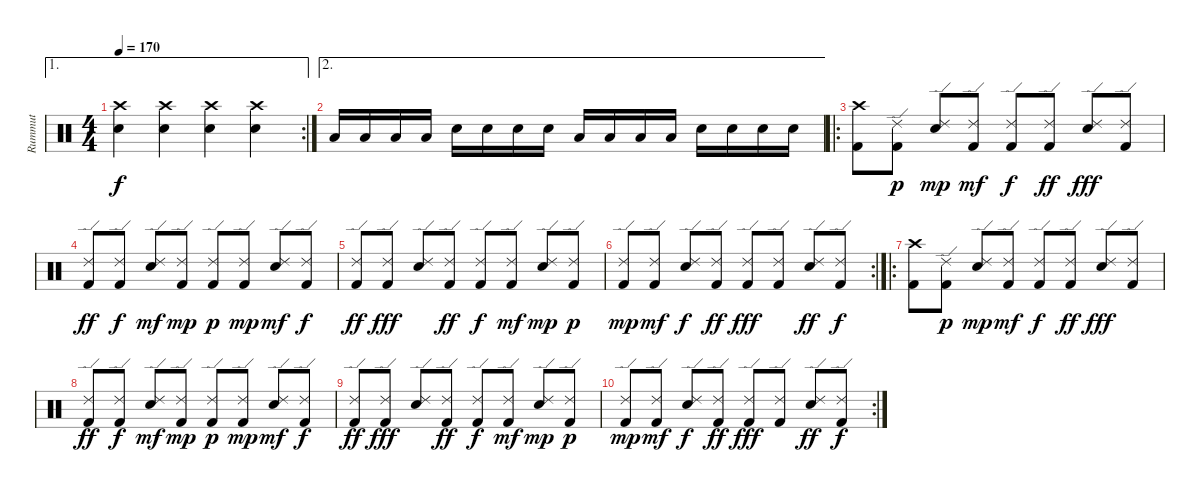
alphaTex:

\track ("Rummut" "Rummut") {instrument percussion}
\staff {score}
\articulation defaults
\ae 1
\rc 2
\ts (4 4)
\tempo 170
\clef neutral
\ks c
("Crash high (hit)" "Electric Snare (hit)").4{dy f} ("Crash high (hit)" "Electric Snare (hit)").4 ("Crash high (hit)" "Electric Snare (hit)").4 ("Crash high (hit)" "Electric Snare (hit)").4 |
\ae 2 "Low Tom (hit)".16 "Low Tom (hit)".16 "Low Tom (hit)".16 "Low Tom (hit)".16 "Electric Snare (hit)".16 "Electric Snare (hit)".16 "Electric Snare (hit)".16 "Electric Snare (hit)".16 "Low Tom (hit)".16 "Low Tom (hit)".16 "Low Tom (hit)".16 "Low Tom (hit)".16 "Electric Snare (hit)".16 "Electric Snare (hit)".16 "Electric Snare (hit)".16 "Electric Snare (hit)".16
|
\ro
("Crash high (hit)" "Kick (hit) 2").8 ("Ride (edge) 2" "Kick (hit) 2").8{dy p} ("Ride (edge) 2" "Electric Snare (hit)").8{dy mp} ("Ride (edge) 2" "Kick (hit) 2").8{dy mf} ("Ride (edge) 2" "Kick (hit) 2").8{dy f} ("Ride (edge) 2" "Kick (hit) 2").8{dy ff} ("Ride (edge) 2" "Electric Snare (hit)").8{dy fff} ("Ride (edge) 2" "Kick (hit) 2").8 |
("Ride (edge) 2" "Kick (hit) 2").8{dy ff} ("Ride (edge) 2" "Kick (hit) 2").8{dy f} ("Ride (edge) 2" "Electric Snare (hit)").8{dy mf} ("Ride (edge) 2" "Kick (hit) 2").8{dy mp} ("Ride (edge) 2" "Kick (hit) 2").8{dy p} ("Ride (edge) 2" "Kick (hit) 2").8{dy mp} ("Ride (edge) 2" "Electric Snare (hit)").8{dy mf} ("Ride (edge) 2" "Kick (hit) 2").8{dy f} |
("Ride (edge) 2" "Kick (hit) 2").8{dy ff} ("Ride (edge) 2" "Kick (hit) 2").8{dy fff} ("Ride (edge) 2" "Electric Snare (hit)").8 ("Ride (edge) 2" "Kick (hit) 2").8{dy ff} ("Ride (edge) 2" "Kick (hit) 2").8{dy f} ("Ride (edge) 2" "Kick (hit) 2").8{dy mf} ("Ride (edge) 2" "Electric Snare (hit)").8{dy mp} ("Ride (edge) 2" "Kick (hit) 2").8{dy p} |
\rc 2
("Ride (edge) 2" "Kick (hit) 2").8{dy mp} ("Ride (edge) 2" "Kick (hit) 2").8{dy mf} ("Ride (edge) 2" "Electric Snare (hit)").8{dy f} ("Ride (edge) 2" "Kick (hit) 2").8{dy ff} ("Ride (edge) 2" "Kick (hit) 2").8{dy fff} ("Ride (edge) 2" "Kick (hit) 2").8 ("Ride (edge) 2" "Electric Snare (hit)").8{dy ff} ("Ride (edge) 2" "Kick (hit) 2").8{dy f} |
\ro
("Crash high (hit)" "Kick (hit) 2").8 ("Ride (edge) 2" "Kick (hit) 2").8{dy p} ("Ride (edge) 2" "Electric Snare (hit)").8{dy mp} ("Ride (edge) 2" "Kick (hit) 2").8{dy mf} ("Ride (edge) 2" "Kick (hit) 2").8{dy f} ("Ride (edge) 2" "Kick (hit) 2").8{dy ff} ("Ride (edge) 2" "Electric Snare (hit)").8{dy fff} ("Ride (edge) 2" "Kick (hit) 2").8 |
("Ride (edge) 2" "Kick (hit) 2").8{dy ff} ("Ride (edge) 2" "Kick (hit) 2").8{dy f} ("Ride (edge) 2" "Electric Snare (hit)").8{dy mf} ("Ride (edge) 2" "Kick (hit) 2").8{dy mp} ("Ride (edge) 2" "Kick (hit) 2").8{dy p} ("Ride (edge) 2" "Kick (hit) 2").8{dy mp} ("Ride (edge) 2" "Electric Snare (hit)").8{dy mf} ("Ride (edge) 2" "Kick (hit) 2").8{dy f} |
("Ride (edge) 2" "Kick (hit) 2").8{dy ff} ("Ride (edge) 2" "Kick (hit) 2").8{dy fff} ("Ride (edge) 2" "Electric Snare (hit)").8 ("Ride (edge) 2" "Kick (hit) 2").8{dy ff} ("Ride (edge) 2" "Kick (hit) 2").8{dy f} ("Ride (edge) 2" "Kick (hit) 2").8{dy mf} ("Ride (edge) 2" "Electric Snare (hit)").8{dy mp} ("Ride (edge) 2" "Kick (hit) 2").8{dy p} |
\rc 2
("Ride (edge) 2" "Kick (hit) 2").8{dy mp} ("Ride (edge) 2" "Kick (hit) 2").8{dy mf} ("Ride (edge) 2" "Electric Snare (hit)").8{dy f} ("Ride (edge) 2" "Kick (hit) 2").8{dy ff} ("Ride (edge) 2" "Kick (hit) 2").8{dy fff} ("Ride (edge) 2" "Kick (hit) 2").8 ("Ride (edge) 2" "Electric Snare (hit)").8{dy ff} ("Ride (edge) 2" "Kick (hit) 2").8{dy f}
